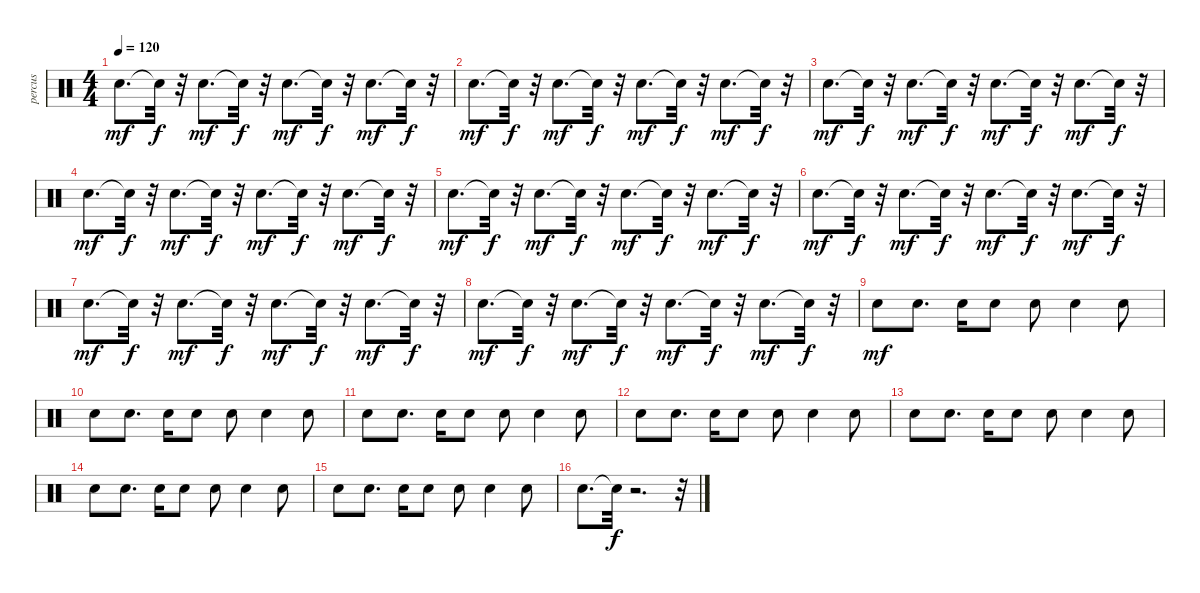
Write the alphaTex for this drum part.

\track ("percus" "percus") {instrument percussion}
\staff {score}
\articulation defaults
\ts (4 4)
\tempo 120
\clef neutral
\ks c "Snare (hit)".8{d dy mf} "Snare (hit)"{t}.32{dy f}
r.32 "Snare (hit)".8{d dy mf} "Snare (hit)"{t}.32{dy f} r.32 "Snare (hit)".8{d dy mf} "Snare (hit)"{t}.32{dy f} r.32 "Snare (hit)".8{d dy mf} "Snare (hit)"{t}.32{dy f} r.32 |
"Snare (hit)".8{d dy mf} "Snare (hit)"{t}.32{dy f} r.32 "Snare (hit)".8{d dy mf} "Snare (hit)"{t}.32{dy f} r.32 "Snare (hit)".8{d dy mf} "Snare (hit)"{t}.32{dy f} r.32 "Snare (hit)".8{d dy mf} "Snare (hit)"{t}.32{dy f} r.32 |
"Snare (hit)".8{d dy mf} "Snare (hit)"{t}.32{dy f} r.32 "Snare (hit)".8{d dy mf} "Snare (hit)"{t}.32{dy f} r.32 "Snare (hit)".8{d dy mf} "Snare (hit)"{t}.32{dy f} r.32 "Snare (hit)".8{d dy mf} "Snare (hit)"{t}.32{dy f} r.32 |
"Snare (hit)".8{d dy mf} "Snare (hit)"{t}.32{dy f} r.32 "Snare (hit)".8{d dy mf} "Snare (hit)"{t}.32{dy f} r.32 "Snare (hit)".8{d dy mf} "Snare (hit)"{t}.32{dy f} r.32 "Snare (hit)".8{d dy mf} "Snare (hit)"{t}.32{dy f} r.32 |
"Snare (hit)".8{d dy mf} "Snare (hit)"{t}.32{dy f} r.32 "Snare (hit)".8{d dy mf} "Snare (hit)"{t}.32{dy f} r.32 "Snare (hit)".8{d dy mf} "Snare (hit)"{t}.32{dy f} r.32 "Snare (hit)".8{d dy mf} "Snare (hit)"{t}.32{dy f} r.32 |
"Snare (hit)".8{d dy mf} "Snare (hit)"{t}.32{dy f} r.32 "Snare (hit)".8{d dy mf} "Snare (hit)"{t}.32{dy f} r.32 "Snare (hit)".8{d dy mf} "Snare (hit)"{t}.32{dy f} r.32 "Snare (hit)".8{d dy mf} "Snare (hit)"{t}.32{dy f} r.32 |
"Snare (hit)".8{d dy mf} "Snare (hit)"{t}.32{dy f} r.32 "Snare (hit)".8{d dy mf} "Snare (hit)"{t}.32{dy f} r.32 "Snare (hit)".8{d dy mf} "Snare (hit)"{t}.32{dy f} r.32 "Snare (hit)".8{d dy mf} "Snare (hit)"{t}.32{dy f} r.32 |
"Snare (hit)".8{d dy mf} "Snare (hit)"{t}.32{dy f} r.32 "Snare (hit)".8{d dy mf} "Snare (hit)"{t}.32{dy f} r.32 "Snare (hit)".8{d dy mf} "Snare (hit)"{t}.32{dy f} r.32 "Snare (hit)".8{d dy mf} "Snare (hit)"{t}.32{dy f} r.32 |
"Snare (hit)".8{dy mf} "Snare (hit)".8{d} "Snare (hit)".16 "Snare (hit)".8 "Snare (hit)".8 "Snare (hit)".4 "Snare (hit)".8 |
"Snare (hit)".8 "Snare (hit)".8{d} "Snare (hit)".16 "Snare (hit)".8 "Snare (hit)".8 "Snare (hit)".4 "Snare (hit)".8 |
"Snare (hit)".8 "Snare (hit)".8{d} "Snare (hit)".16 "Snare (hit)".8 "Snare (hit)".8 "Snare (hit)".4 "Snare (hit)".8 |
"Snare (hit)".8 "Snare (hit)".8{d} "Snare (hit)".16 "Snare (hit)".8 "Snare (hit)".8 "Snare (hit)".4 "Snare (hit)".8 |
"Snare (hit)".8 "Snare (hit)".8{d} "Snare (hit)".16 "Snare (hit)".8 "Snare (hit)".8 "Snare (hit)".4 "Snare (hit)".8 |
"Snare (hit)".8 "Snare (hit)".8{d} "Snare (hit)".16 "Snare (hit)".8 "Snare (hit)".8 "Snare (hit)".4 "Snare (hit)".8 |
"Snare (hit)".8 "Snare (hit)".8{d} "Snare (hit)".16 "Snare (hit)".8 "Snare (hit)".8 "Snare (hit)".4 "Snare (hit)".8 |
"Snare (hit)".8{d} "Snare (hit)"{t}.32{dy f} r.2{d} r.32
